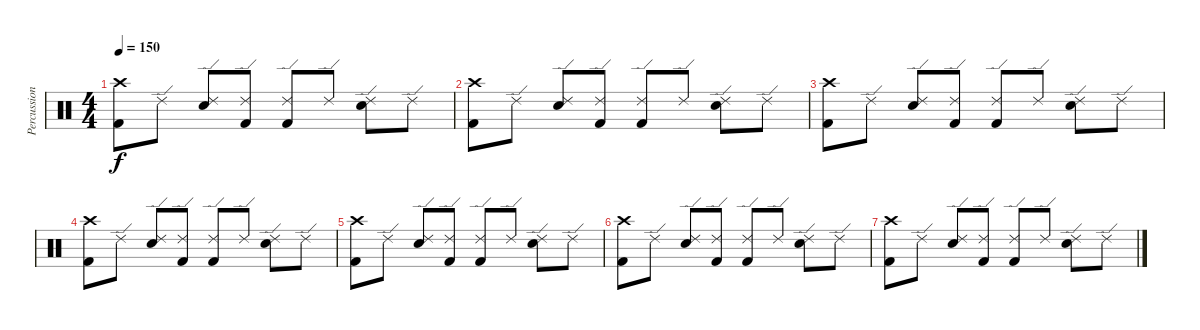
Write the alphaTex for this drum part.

\track ("Percussion" "Percussion") {instrument percussion}
\staff {score}
\articulation defaults
\ts (4 4)
\tempo 150
\clef neutral
\ks c
("Crash high (hit)" "Kick (hit) 2").8{dy f} "Ride (edge) 2".8 ("Ride (edge) 2" "Electric Snare (hit)").8 ("Ride (edge) 2" "Kick (hit) 2").8 ("Ride (edge) 2" "Kick (hit) 2").8 "Ride (edge) 2".8 ("Ride (edge) 2" "Electric Snare (hit)").8 "Ride (edge) 2".8 |
("Crash high (hit)" "Kick (hit) 2").8 "Ride (edge) 2".8 ("Ride (edge) 2" "Electric Snare (hit)").8 ("Ride (edge) 2" "Kick (hit) 2").8 ("Ride (edge) 2" "Kick (hit) 2").8 "Ride (edge) 2".8 ("Ride (edge) 2" "Electric Snare (hit)").8 "Ride (edge) 2".8 |
("Crash high (hit)" "Kick (hit) 2").8 "Ride (edge) 2".8 ("Ride (edge) 2" "Electric Snare (hit)").8 ("Ride (edge) 2" "Kick (hit) 2").8 ("Ride (edge) 2" "Kick (hit) 2").8 "Ride (edge) 2".8 ("Ride (edge) 2" "Electric Snare (hit)").8 "Ride (edge) 2".8 |
("Crash high (hit)" "Kick (hit) 2").8 "Ride (edge) 2".8 ("Ride (edge) 2" "Electric Snare (hit)").8 ("Ride (edge) 2" "Kick (hit) 2").8 ("Ride (edge) 2" "Kick (hit) 2").8 "Ride (edge) 2".8 ("Ride (edge) 2" "Electric Snare (hit)").8 "Ride (edge) 2".8 |
("Crash high (hit)" "Kick (hit) 2").8 "Ride (edge) 2".8 ("Ride (edge) 2" "Electric Snare (hit)").8 ("Ride (edge) 2" "Kick (hit) 2").8 ("Ride (edge) 2" "Kick (hit) 2").8 "Ride (edge) 2".8 ("Ride (edge) 2" "Electric Snare (hit)").8 "Ride (edge) 2".8 |
("Crash high (hit)" "Kick (hit) 2").8 "Ride (edge) 2".8 ("Ride (edge) 2" "Electric Snare (hit)").8 ("Ride (edge) 2" "Kick (hit) 2").8 ("Ride (edge) 2" "Kick (hit) 2").8 "Ride (edge) 2".8 ("Ride (edge) 2" "Electric Snare (hit)").8 "Ride (edge) 2".8 |
("Crash high (hit)" "Kick (hit) 2").8 "Ride (edge) 2".8 ("Ride (edge) 2" "Electric Snare (hit)").8 ("Ride (edge) 2" "Kick (hit) 2").8 ("Ride (edge) 2" "Kick (hit) 2").8 "Ride (edge) 2".8 ("Ride (edge) 2" "Electric Snare (hit)").8 "Ride (edge) 2".8
